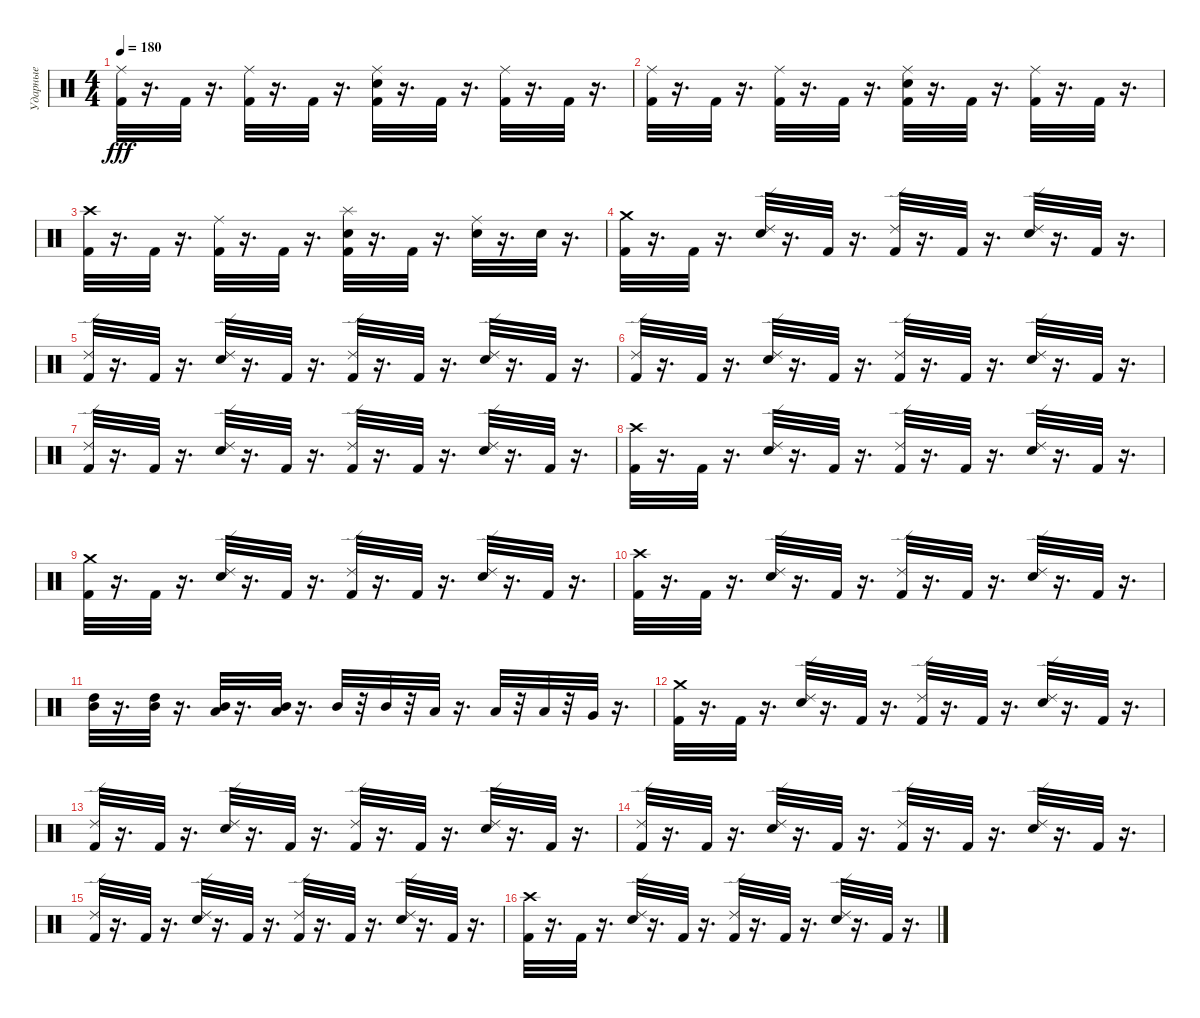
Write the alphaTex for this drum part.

\track ("Ударные" "Ударные") {instrument percussion}
\staff {score}
\articulation defaults
\ts (4 4)
\tempo 180
\clef neutral
\ks c
("Ride (middle)" "Kick (hit) 2").32{dy fff} r.16{d} "Kick (hit) 2".32 r.16{d} ("Kick (hit) 2" "Ride (middle)").32 r.16{d} "Kick (hit) 2".32 r.16{d} ("Kick (hit) 2" "Snare (hit) 2" "Ride (middle)").32 r.16{d} "Kick (hit) 2".32 r.16{d} ("Ride (middle)" "Kick (hit) 2").32 r.16{d} "Kick (hit) 2".32 r.16{d} |
("Kick (hit) 2" "Ride (middle)").32 r.16{d} "Kick (hit) 2".32 r.16{d} ("Ride (middle)" "Kick (hit) 2").32 r.16{d} "Kick (hit) 2".32 r.16{d} ("Kick (hit) 2" "Snare (hit) 2" "Ride (middle)").32 r.16{d} "Kick (hit) 2".32 r.16{d} ("Ride (middle)" "Kick (hit) 2").32 r.16{d} "Kick (hit) 2".32 r.16{d} |
("Crash high (hit)" "Kick (hit) 2").32 r.16{d} "Kick (hit) 2".32 r.16{d} ("Kick (hit) 2" "Ride (middle)").32 r.16{d} "Kick (hit) 2".32 r.16{d} ("Kick (hit) 2" "Splash (hit)" "Snare (hit) 2").32 r.16{d} "Kick (hit) 2".32 r.16{d} ("Snare (hit) 2" "Ride (middle)").32 r.16{d} "Snare (hit) 2".32 r.16{d} |
("Crash medium (hit)" "Kick (hit) 2").32 r.16{d} "Kick (hit) 2".32 r.16{d} ("Ride (edge) 2" "Snare (hit) 2").32 r.16{d} "Kick (hit) 2".32 r.16{d} ("Ride (edge) 2" "Kick (hit) 2").32 r.16{d} "Kick (hit) 2".32 r.16{d} ("Ride (edge) 2" "Snare (hit) 2").32 r.16{d} "Kick (hit) 2".32 r.16{d} |
("Kick (hit) 2" "Ride (edge) 2").32 r.16{d} "Kick (hit) 2".32 r.16{d} ("Ride (edge) 2" "Snare (hit) 2").32 r.16{d} "Kick (hit) 2".32 r.16{d} ("Kick (hit) 2" "Ride (edge) 2").32 r.16{d} "Kick (hit) 2".32 r.16{d} ("Ride (edge) 2" "Snare (hit) 2").32 r.16{d} "Kick (hit) 2".32 r.16{d} |
("Ride (edge) 2" "Kick (hit) 2").32 r.16{d} "Kick (hit) 2".32 r.16{d} ("Snare (hit) 2" "Ride (edge) 2").32 r.16{d} "Kick (hit) 2".32 r.16{d} ("Kick (hit) 2" "Ride (edge) 2").32 r.16{d} "Kick (hit) 2".32 r.16{d} ("Snare (hit) 2" "Ride (edge) 2").32 r.16{d} "Kick (hit) 2".32 r.16{d} |
("Kick (hit) 2" "Ride (edge) 2").32 r.16{d} "Kick (hit) 2".32 r.16{d} ("Ride (edge) 2" "Snare (hit) 2").32 r.16{d} "Kick (hit) 2".32 r.16{d} ("Kick (hit) 2" "Ride (edge) 2").32 r.16{d} "Kick (hit) 2".32 r.16{d} ("Ride (edge) 2" "Snare (hit) 2").32 r.16{d} "Kick (hit) 2".32 r.16{d} |
("Kick (hit) 2" "Crash high (hit)").32 r.16{d} "Kick (hit) 2".32 r.16{d} ("Snare (hit) 2" "Ride (edge) 2").32 r.16{d} "Kick (hit) 2".32 r.16{d} ("Ride (edge) 2" "Kick (hit) 2").32 r.16{d} "Kick (hit) 2".32 r.16{d} ("Ride (edge) 2" "Snare (hit) 2").32 r.16{d} "Kick (hit) 2".32 r.16{d} |
("Crash medium (hit)" "Kick (hit) 2").32 r.16{d} "Kick (hit) 2".32 r.16{d} ("Ride (edge) 2" "Snare (hit) 2").32 r.16{d} "Kick (hit) 2".32 r.16{d} ("Kick (hit) 2" "Ride (edge) 2").32 r.16{d} "Kick (hit) 2".32 r.16{d} ("Snare (hit) 2" "Ride (edge) 2").32 r.16{d} "Kick (hit) 2".32 r.16{d} |
("Crash high (hit)" "Kick (hit) 2").32 r.16{d} "Kick (hit) 2".32 r.16{d} ("Ride (edge) 2" "Snare (hit) 2").32 r.16{d} "Kick (hit) 2".32 r.16{d} ("Ride (edge) 2" "Kick (hit) 2").32 r.16{d} "Kick (hit) 2".32 r.16{d} ("Snare (hit) 2" "Ride (edge) 2").32 r.16{d} "Kick (hit) 2".32 r.16{d} |
("Mid Tom (hit)" "High Tom (hit)").32 r.16{d} ("High Tom (hit)" "Mid Tom (hit)").32 r.16{d} ("Mid Tom (hit)" "Low Tom (hit)").32 r.16{d} ("Low Tom (hit)" "Mid Tom (hit)").32 r.16{d} "Mid Tom (hit)".32 r.32 "Mid Tom (hit)".32 r.32 "Low Tom (hit)".32 r.16{d} "Low Tom (hit)".32 r.32 "Low Tom (hit)".32 r.32 "Very Low Tom (hit)".32 r.16{d} |
("Kick (hit) 2" "Crash medium (hit)").32 r.16{d} "Kick (hit) 2".32 r.16{d} ("Snare (hit) 2" "Ride (edge) 2").32 r.16{d} "Kick (hit) 2".32 r.16{d} ("Ride (edge) 2" "Kick (hit) 2").32 r.16{d} "Kick (hit) 2".32 r.16{d} ("Snare (hit) 2" "Ride (edge) 2").32 r.16{d} "Kick (hit) 2".32 r.16{d} |
("Kick (hit) 2" "Ride (edge) 2").32 r.16{d} "Kick (hit) 2".32 r.16{d} ("Ride (edge) 2" "Snare (hit) 2").32 r.16{d} "Kick (hit) 2".32 r.16{d} ("Kick (hit) 2" "Ride (edge) 2").32 r.16{d} "Kick (hit) 2".32 r.16{d} ("Snare (hit) 2" "Ride (edge) 2").32 r.16{d} "Kick (hit) 2".32 r.16{d} |
("Kick (hit) 2" "Ride (edge) 2").32 r.16{d} "Kick (hit) 2".32 r.16{d} ("Ride (edge) 2" "Snare (hit) 2").32 r.16{d} "Kick (hit) 2".32 r.16{d} ("Ride (edge) 2" "Kick (hit) 2").32 r.16{d} "Kick (hit) 2".32 r.16{d} ("Ride (edge) 2" "Snare (hit) 2").32 r.16{d} "Kick (hit) 2".32 r.16{d} |
("Ride (edge) 2" "Kick (hit) 2").32 r.16{d} "Kick (hit) 2".32 r.16{d} ("Ride (edge) 2" "Snare (hit) 2").32 r.16{d} "Kick (hit) 2".32 r.16{d} ("Kick (hit) 2" "Ride (edge) 2").32 r.16{d} "Kick (hit) 2".32 r.16{d} ("Snare (hit) 2" "Ride (edge) 2").32 r.16{d} "Kick (hit) 2".32 r.16{d} |
("Kick (hit) 2" "Crash high (hit)").32 r.16{d} "Kick (hit) 2".32 r.16{d} ("Ride (edge) 2" "Snare (hit) 2").32 r.16{d} "Kick (hit) 2".32 r.16{d} ("Ride (edge) 2" "Kick (hit) 2").32 r.16{d} "Kick (hit) 2".32 r.16{d} ("Snare (hit) 2" "Ride (edge) 2").32 r.16{d} "Kick (hit) 2".32 r.16{d}
